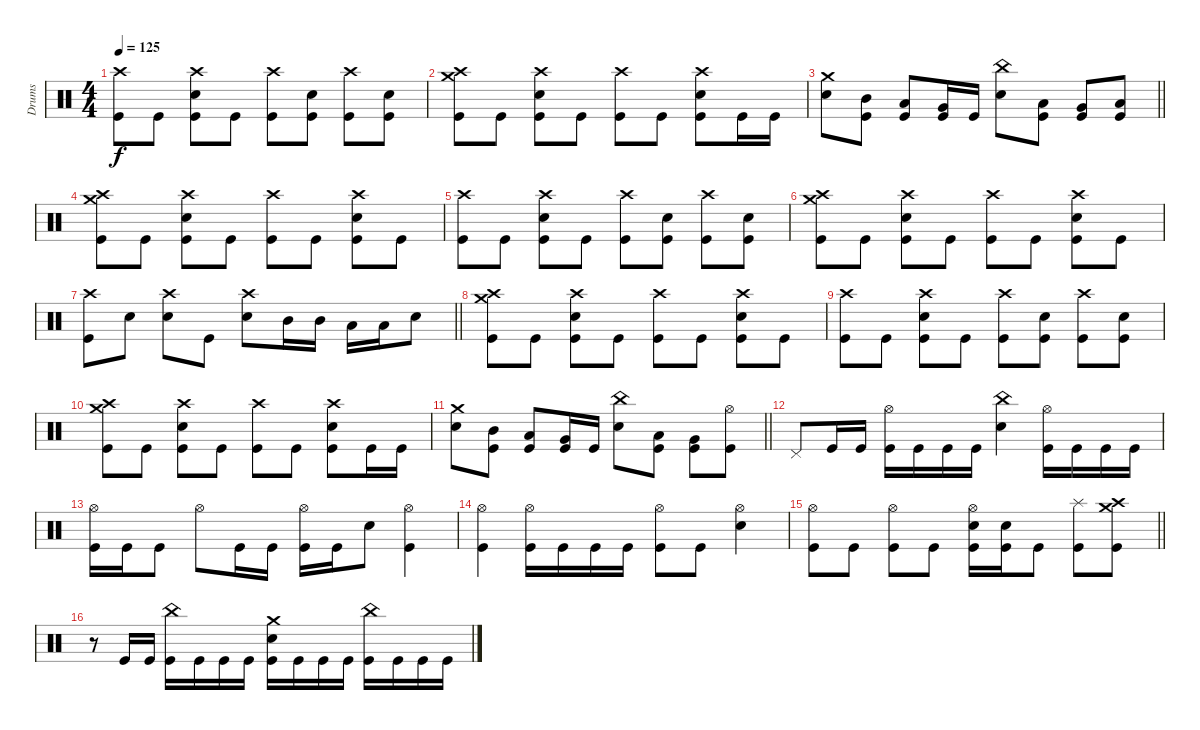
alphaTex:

\track ("Drums" "Drums") {instrument percussion}
\staff
\articulation defaults
\ts (4 4)
\tempo 125
\clef neutral
\ks c
("Crash high (hit)" "Kick (hit)").8{dy f} "Kick (hit)".8 ("Crash high (hit)" "Electric Snare (hit)" "Kick (hit)").8 "Kick (hit)".8 ("Crash high (hit)" "Kick (hit)").8 ("Electric Snare (hit)" "Kick (hit)").8 ("Crash high (hit)" "Kick (hit)").8 ("Electric Snare (hit)" "Kick (hit)").8 |
("Crash high (hit)" "Crash medium (hit)" "Kick (hit)").8 "Kick (hit)".8 ("Crash high (hit)" "Electric Snare (hit)" "Kick (hit)").8 "Kick (hit)".8 ("Crash high (hit)" "Kick (hit)").8 "Kick (hit)".8 ("Crash high (hit)" "Electric Snare (hit)" "Kick (hit)").8 "Kick (hit)".16 "Kick (hit)".16 |
\barLineRight lightlight
("Crash medium (hit)" "Electric Snare (hit)").8 ("Mid Tom (hit)" "Kick (hit)").8 ("Low Tom (hit)" "Kick (hit)").8 ("Very Low Tom (hit)" "Kick (hit)").16 "Kick (hit)".16 ("China (hit)" "Electric Snare (hit)").8 ("Low Tom (hit)" "Kick (hit)").8 ("Very Low Tom (hit)" "Kick (hit)").8 ("Low Floor Tom (hit)" "Kick (hit)").8 |
("Crash high (hit)" "Crash medium (hit)" "Kick (hit)").8 "Kick (hit)".8 ("Crash high (hit)" "Electric Snare (hit)" "Kick (hit)").8 "Kick (hit)".8 ("Crash high (hit)" "Kick (hit)").8 "Kick (hit)".8 ("Crash high (hit)" "Electric Snare (hit)" "Kick (hit)").8 "Kick (hit)".8 |
("Crash high (hit)" "Kick (hit)").8 "Kick (hit)".8 ("Crash high (hit)" "Electric Snare (hit)" "Kick (hit)").8 "Kick (hit)".8 ("Crash high (hit)" "Kick (hit)").8 ("Electric Snare (hit)" "Kick (hit)").8 ("Crash high (hit)" "Kick (hit)").8 ("Electric Snare (hit)" "Kick (hit)").8 |
("Crash high (hit)" "Crash medium (hit)" "Kick (hit)").8 "Kick (hit)".8 ("Crash high (hit)" "Electric Snare (hit)" "Kick (hit)").8 "Kick (hit)".8 ("Crash high (hit)" "Kick (hit)").8 "Kick (hit)".8 ("Crash high (hit)" "Electric Snare (hit)" "Kick (hit)").8 "Kick (hit)".8 |
\barLineRight lightlight
("Crash high (hit)" "Kick (hit)").8 "Electric Snare (hit)".8 ("Crash high (hit)" "Electric Snare (hit)").8 "Kick (hit)".8 ("Crash high (hit)" "Electric Snare (hit)").8 "Mid Tom (hit)".16 "Mid Tom (hit)".16 "Low Tom (hit)".16 "Low Tom (hit)".16 "Electric Snare (hit)".8 |
("Crash high (hit)" "Crash medium (hit)" "Kick (hit)").8 "Kick (hit)".8 ("Crash high (hit)" "Electric Snare (hit)" "Kick (hit)").8 "Kick (hit)".8 ("Crash high (hit)" "Kick (hit)").8 "Kick (hit)".8 ("Crash high (hit)" "Electric Snare (hit)" "Kick (hit)").8 "Kick (hit)".8 |
("Crash high (hit)" "Kick (hit)").8 "Kick (hit)".8 ("Crash high (hit)" "Electric Snare (hit)" "Kick (hit)").8 "Kick (hit)".8 ("Crash high (hit)" "Kick (hit)").8 ("Electric Snare (hit)" "Kick (hit)").8 ("Crash high (hit)" "Kick (hit)").8 ("Electric Snare (hit)" "Kick (hit)").8 |
("Crash high (hit)" "Crash medium (hit)" "Kick (hit)").8 "Kick (hit)".8 ("Crash high (hit)" "Electric Snare (hit)" "Kick (hit)").8 "Kick (hit)".8 ("Crash high (hit)" "Kick (hit)").8 "Kick (hit)".8 ("Crash high (hit)" "Electric Snare (hit)" "Kick (hit)").8 "Kick (hit)".16 "Kick (hit)".16 |
\barLineRight lightlight
("Crash medium (hit)" "Electric Snare (hit)").8 ("Mid Tom (hit)" "Kick (hit)").8 ("Low Tom (hit)" "Kick (hit)").8 ("Very Low Tom (hit)" "Kick (hit)").16 "Kick (hit)".16 ("China (hit)" "Electric Snare (hit)").8 ("Low Tom (hit)" "Kick (hit)").8 ("Very Low Tom (hit)" "Kick (hit)").8 ("Hi-Hat (open)" "Kick (hit)").8 |
\section ("" "")
"Pedal Hi-Hat (hit)".8 "Kick (hit)".16 "Kick (hit)".16 ("Hi-Hat (open)" "Kick (hit)").16 "Kick (hit)".16 "Kick (hit)".16 "Kick (hit)".16 ("China (hit)" "Electric Snare (hit)").4 ("Hi-Hat (open)" "Kick (hit)").16 "Kick (hit)".16 "Kick (hit)".16 "Kick (hit)".16 |
("Hi-Hat (open)" "Kick (hit)").16 "Kick (hit)".16 "Kick (hit)".8 "Hi-Hat (open)".8 "Kick (hit)".16 "Kick (hit)".16 ("Hi-Hat (open)" "Kick (hit)").16 "Kick (hit)".16 "Electric Snare (hit)".8 ("Hi-Hat (open)" "Kick (hit)").4 |
("Hi-Hat (open)" "Kick (hit)").4 ("Hi-Hat (open)" "Kick (hit)").16 "Kick (hit)".16 "Kick (hit)".16 "Kick (hit)".16 ("Hi-Hat (open)" "Kick (hit)").8 "Kick (hit)".8 ("Hi-Hat (open)" "Electric Snare (hit)").4 |
\barLineRight lightlight
("Hi-Hat (open)" "Kick (hit)").8 "Kick (hit)".8 ("Hi-Hat (open)" "Kick (hit)").8 "Kick (hit)".8 ("Hi-Hat (open)" "Electric Snare (hit)" "Kick (hit)").16 ("Electric Snare (hit)" "Kick (hit)").16 "Kick (hit)".8 ("Splash (hit)" "Kick (hit)").8 ("Crash high (hit)" "Crash medium (hit)" "Kick (hit)").8 |
r.8 "Kick (hit)".16 "Kick (hit)".16 ("China (hit)" "Kick (hit)").16 "Kick (hit)".16 "Kick (hit)".16 "Kick (hit)".16 ("Crash medium (hit)" "Electric Snare (hit)" "Kick (hit)").16 "Kick (hit)".16 "Kick (hit)".16 "Kick (hit)".16 ("China (hit)" "Kick (hit)").16 "Kick (hit)".16 "Kick (hit)".16 "Kick (hit)".16
